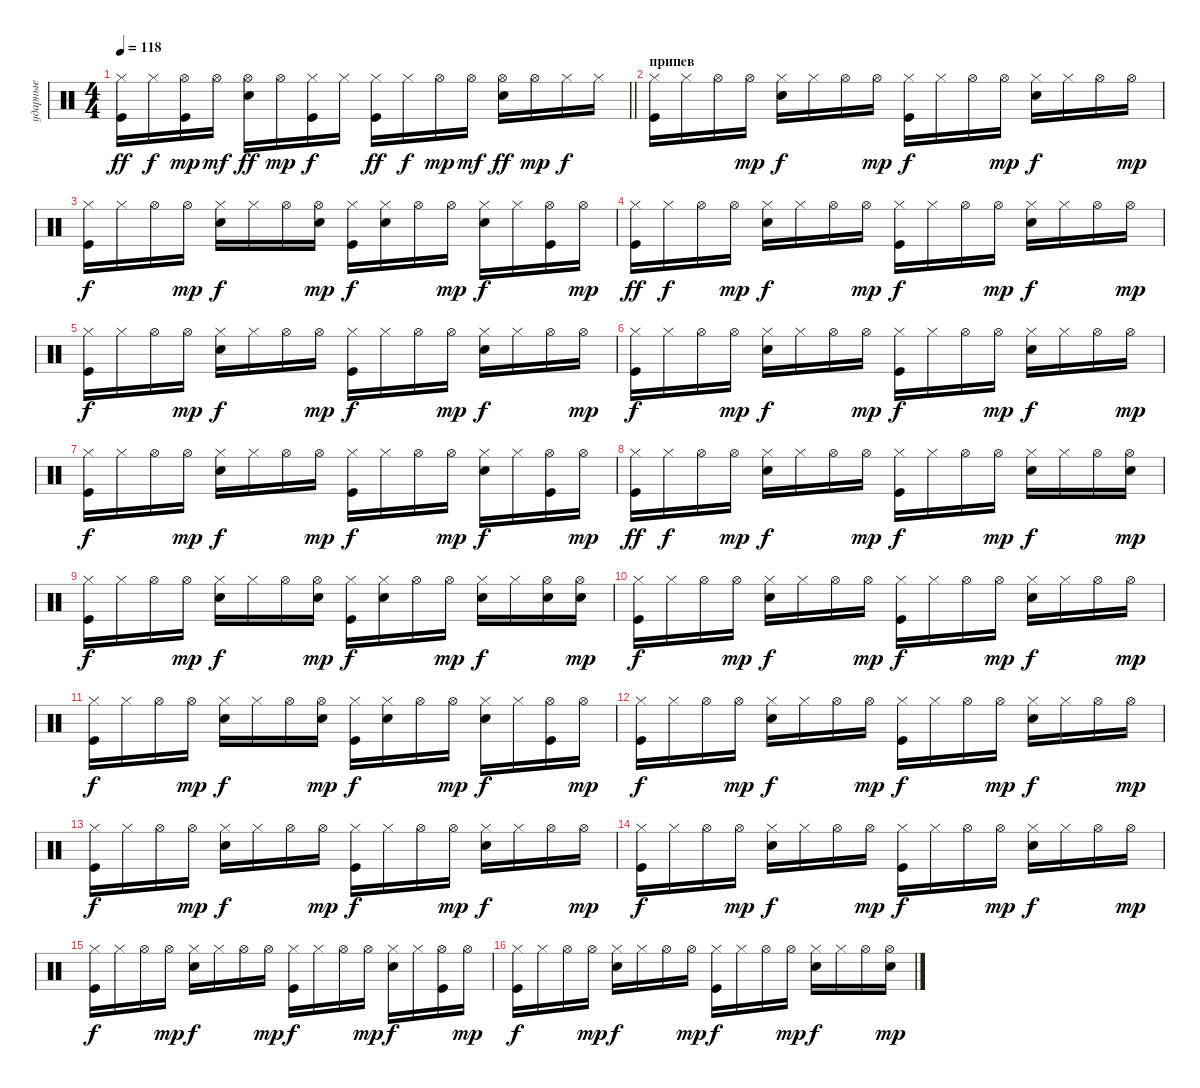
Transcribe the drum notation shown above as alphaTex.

\track ("ударные" "ударные") {instrument percussion}
\staff {score}
\articulation defaults
\ts (4 4)
\tempo 118
\clef neutral
\barLineRight lightlight
\ks c
("Kick (hit)" "Hi-Hat (closed)").16{dy ff} "Hi-Hat (closed)".16{dy f} ("Kick (hit)" "Hi-Hat (open)").16{dy mp} "Hi-Hat (open)".16{dy mf} ("Electric Snare (hit)" "Hi-Hat (open)").16{dy ff} "Hi-Hat (open)".16{dy mp} ("Kick (hit)" "Hi-Hat (closed)").16{dy f} "Hi-Hat (closed)".16 ("Kick (hit)" "Hi-Hat (closed)").16{dy ff} "Hi-Hat (closed)".16{dy f} "Hi-Hat (open)".16{dy mp} "Hi-Hat (open)".16{dy mf} ("Electric Snare (hit)" "Hi-Hat (open)").16{dy ff} "Hi-Hat (open)".16{dy mp} "Hi-Hat (closed)".16{dy f} "Hi-Hat (closed)".16 |
\section ("" "припев")
("Hi-Hat (closed)" "Kick (hit)").16 "Hi-Hat (closed)".16 "Hi-Hat (open)".16 "Hi-Hat (open)".16{dy mp} ("Hi-Hat (closed)" "Electric Snare (hit)").16{dy f} "Hi-Hat (closed)".16 "Hi-Hat (open)".16 "Hi-Hat (open)".16{dy mp} ("Kick (hit)" "Hi-Hat (closed)").16{dy f} "Hi-Hat (closed)".16 "Hi-Hat (open)".16 "Hi-Hat (open)".16{dy mp} ("Hi-Hat (closed)" "Electric Snare (hit)").16{dy f} "Hi-Hat (closed)".16 "Hi-Hat (open)".16 "Hi-Hat (open)".16{dy mp} |
("Hi-Hat (closed)" "Kick (hit)").16{dy f} "Hi-Hat (closed)".16 "Hi-Hat (open)".16 "Hi-Hat (open)".16{dy mp} ("Hi-Hat (closed)" "Electric Snare (hit)").16{dy f} "Hi-Hat (closed)".16 "Hi-Hat (open)".16 ("Electric Snare (hit)" "Hi-Hat (open)").16{dy mp} ("Kick (hit)" "Hi-Hat (closed)").16{dy f} ("Electric Snare (hit)" "Hi-Hat (closed)").16 "Hi-Hat (open)".16 "Hi-Hat (open)".16{dy mp} ("Hi-Hat (closed)" "Electric Snare (hit)").16{dy f} "Hi-Hat (closed)".16 ("Kick (hit)" "Hi-Hat (open)").16 "Hi-Hat (open)".16{dy mp} |
("Hi-Hat (closed)" "Kick (hit)").16{dy ff} "Hi-Hat (closed)".16{dy f} "Hi-Hat (open)".16 "Hi-Hat (open)".16{dy mp} ("Hi-Hat (closed)" "Electric Snare (hit)").16{dy f} "Hi-Hat (closed)".16 "Hi-Hat (open)".16 "Hi-Hat (open)".16{dy mp} ("Kick (hit)" "Hi-Hat (closed)").16{dy f} "Hi-Hat (closed)".16 "Hi-Hat (open)".16 "Hi-Hat (open)".16{dy mp} ("Hi-Hat (closed)" "Electric Snare (hit)").16{dy f} "Hi-Hat (closed)".16 "Hi-Hat (open)".16 "Hi-Hat (open)".16{dy mp} |
("Hi-Hat (closed)" "Kick (hit)").16{dy f} "Hi-Hat (closed)".16 "Hi-Hat (open)".16 "Hi-Hat (open)".16{dy mp} ("Hi-Hat (closed)" "Electric Snare (hit)").16{dy f} "Hi-Hat (closed)".16 "Hi-Hat (open)".16 "Hi-Hat (open)".16{dy mp} ("Kick (hit)" "Hi-Hat (closed)").16{dy f} "Hi-Hat (closed)".16 "Hi-Hat (open)".16 "Hi-Hat (open)".16{dy mp} ("Hi-Hat (closed)" "Electric Snare (hit)").16{dy f} "Hi-Hat (closed)".16 "Hi-Hat (open)".16 "Hi-Hat (open)".16{dy mp} |
("Hi-Hat (closed)" "Kick (hit)").16{dy f} "Hi-Hat (closed)".16 "Hi-Hat (open)".16 "Hi-Hat (open)".16{dy mp} ("Hi-Hat (closed)" "Electric Snare (hit)").16{dy f} "Hi-Hat (closed)".16 "Hi-Hat (open)".16 "Hi-Hat (open)".16{dy mp} ("Kick (hit)" "Hi-Hat (closed)").16{dy f} "Hi-Hat (closed)".16 "Hi-Hat (open)".16 "Hi-Hat (open)".16{dy mp} ("Hi-Hat (closed)" "Electric Snare (hit)").16{dy f} "Hi-Hat (closed)".16 "Hi-Hat (open)".16 "Hi-Hat (open)".16{dy mp} |
("Hi-Hat (closed)" "Kick (hit)").16{dy f} "Hi-Hat (closed)".16 "Hi-Hat (open)".16 "Hi-Hat (open)".16{dy mp} ("Electric Snare (hit)" "Hi-Hat (closed)").16{dy f} "Hi-Hat (closed)".16 "Hi-Hat (open)".16 "Hi-Hat (open)".16{dy mp} ("Kick (hit)" "Hi-Hat (closed)").16{dy f} "Hi-Hat (closed)".16 "Hi-Hat (open)".16 "Hi-Hat (open)".16{dy mp} ("Hi-Hat (closed)" "Electric Snare (hit)").16{dy f} "Hi-Hat (closed)".16 ("Kick (hit)" "Hi-Hat (open)").16 "Hi-Hat (open)".16{dy mp} |
("Hi-Hat (closed)" "Kick (hit)").16{dy ff} "Hi-Hat (closed)".16{dy f} "Hi-Hat (open)".16 "Hi-Hat (open)".16{dy mp} ("Hi-Hat (closed)" "Electric Snare (hit)").16{dy f} "Hi-Hat (closed)".16 "Hi-Hat (open)".16 "Hi-Hat (open)".16{dy mp} ("Kick (hit)" "Hi-Hat (closed)").16{dy f} "Hi-Hat (closed)".16 "Hi-Hat (open)".16 "Hi-Hat (open)".16{dy mp} ("Hi-Hat (closed)" "Electric Snare (hit)").16{dy f} "Hi-Hat (closed)".16 "Hi-Hat (open)".16 ("Electric Snare (hit)" "Hi-Hat (open)").16{dy mp} |
("Hi-Hat (closed)" "Kick (hit)").16{dy f} "Hi-Hat (closed)".16 "Hi-Hat (open)".16 "Hi-Hat (open)".16{dy mp} ("Hi-Hat (closed)" "Electric Snare (hit)").16{dy f} "Hi-Hat (closed)".16 "Hi-Hat (open)".16 ("Electric Snare (hit)" "Hi-Hat (open)").16{dy mp} ("Kick (hit)" "Hi-Hat (closed)").16{dy f} ("Electric Snare (hit)" "Hi-Hat (closed)").16 "Hi-Hat (open)".16 "Hi-Hat (open)".16{dy mp} ("Hi-Hat (closed)" "Electric Snare (hit)").16{dy f} "Hi-Hat (closed)".16 ("Electric Snare (hit)" "Hi-Hat (open)").16 ("Electric Snare (hit)" "Hi-Hat (open)").16{dy mp} |
("Hi-Hat (closed)" "Kick (hit)").16{dy f} "Hi-Hat (closed)".16 "Hi-Hat (open)".16 "Hi-Hat (open)".16{dy mp} ("Hi-Hat (closed)" "Electric Snare (hit)").16{dy f} "Hi-Hat (closed)".16 "Hi-Hat (open)".16 "Hi-Hat (open)".16{dy mp} ("Kick (hit)" "Hi-Hat (closed)").16{dy f} "Hi-Hat (closed)".16 "Hi-Hat (open)".16 "Hi-Hat (open)".16{dy mp} ("Hi-Hat (closed)" "Electric Snare (hit)").16{dy f} "Hi-Hat (closed)".16 "Hi-Hat (open)".16 "Hi-Hat (open)".16{dy mp} |
("Hi-Hat (closed)" "Kick (hit)").16{dy f} "Hi-Hat (closed)".16 "Hi-Hat (open)".16 "Hi-Hat (open)".16{dy mp} ("Hi-Hat (closed)" "Electric Snare (hit)").16{dy f} "Hi-Hat (closed)".16 "Hi-Hat (open)".16 ("Electric Snare (hit)" "Hi-Hat (open)").16{dy mp} ("Kick (hit)" "Hi-Hat (closed)").16{dy f} ("Electric Snare (hit)" "Hi-Hat (closed)").16 "Hi-Hat (open)".16 "Hi-Hat (open)".16{dy mp} ("Hi-Hat (closed)" "Electric Snare (hit)").16{dy f} "Hi-Hat (closed)".16 ("Kick (hit)" "Hi-Hat (open)").16 "Hi-Hat (open)".16{dy mp} |
("Hi-Hat (closed)" "Kick (hit)").16{dy f} "Hi-Hat (closed)".16 "Hi-Hat (open)".16 "Hi-Hat (open)".16{dy mp} ("Hi-Hat (closed)" "Electric Snare (hit)").16{dy f} "Hi-Hat (closed)".16 "Hi-Hat (open)".16 "Hi-Hat (open)".16{dy mp} ("Kick (hit)" "Hi-Hat (closed)").16{dy f} "Hi-Hat (closed)".16 "Hi-Hat (open)".16 "Hi-Hat (open)".16{dy mp} ("Hi-Hat (closed)" "Electric Snare (hit)").16{dy f} "Hi-Hat (closed)".16 "Hi-Hat (open)".16 "Hi-Hat (open)".16{dy mp} |
("Hi-Hat (closed)" "Kick (hit)").16{dy f} "Hi-Hat (closed)".16 "Hi-Hat (open)".16 "Hi-Hat (open)".16{dy mp} ("Hi-Hat (closed)" "Electric Snare (hit)").16{dy f} "Hi-Hat (closed)".16 "Hi-Hat (open)".16 "Hi-Hat (open)".16{dy mp} ("Kick (hit)" "Hi-Hat (closed)").16{dy f} "Hi-Hat (closed)".16 "Hi-Hat (open)".16 "Hi-Hat (open)".16{dy mp} ("Hi-Hat (closed)" "Electric Snare (hit)").16{dy f} "Hi-Hat (closed)".16 "Hi-Hat (open)".16 "Hi-Hat (open)".16{dy mp} |
("Hi-Hat (closed)" "Kick (hit)").16{dy f} "Hi-Hat (closed)".16 "Hi-Hat (open)".16 "Hi-Hat (open)".16{dy mp} ("Hi-Hat (closed)" "Electric Snare (hit)").16{dy f} "Hi-Hat (closed)".16 "Hi-Hat (open)".16 "Hi-Hat (open)".16{dy mp} ("Kick (hit)" "Hi-Hat (closed)").16{dy f} "Hi-Hat (closed)".16 "Hi-Hat (open)".16 "Hi-Hat (open)".16{dy mp} ("Hi-Hat (closed)" "Electric Snare (hit)").16{dy f} "Hi-Hat (closed)".16 "Hi-Hat (open)".16 "Hi-Hat (open)".16{dy mp} |
("Hi-Hat (closed)" "Kick (hit)").16{dy f} "Hi-Hat (closed)".16 "Hi-Hat (open)".16 "Hi-Hat (open)".16{dy mp} ("Electric Snare (hit)" "Hi-Hat (closed)").16{dy f} "Hi-Hat (closed)".16 "Hi-Hat (open)".16 "Hi-Hat (open)".16{dy mp} ("Kick (hit)" "Hi-Hat (closed)").16{dy f} "Hi-Hat (closed)".16 "Hi-Hat (open)".16 "Hi-Hat (open)".16{dy mp} ("Hi-Hat (closed)" "Electric Snare (hit)").16{dy f} "Hi-Hat (closed)".16 ("Kick (hit)" "Hi-Hat (open)").16 "Hi-Hat (open)".16{dy mp} |
("Hi-Hat (closed)" "Kick (hit)").16{dy f} "Hi-Hat (closed)".16 "Hi-Hat (open)".16 "Hi-Hat (open)".16{dy mp} ("Hi-Hat (closed)" "Electric Snare (hit)").16{dy f} "Hi-Hat (closed)".16 "Hi-Hat (open)".16 "Hi-Hat (open)".16{dy mp} ("Kick (hit)" "Hi-Hat (closed)").16{dy f} "Hi-Hat (closed)".16 "Hi-Hat (open)".16 "Hi-Hat (open)".16{dy mp} ("Hi-Hat (closed)" "Electric Snare (hit)").16{dy f} "Hi-Hat (closed)".16 "Hi-Hat (open)".16 ("Electric Snare (hit)" "Hi-Hat (open)").16{dy mp}
